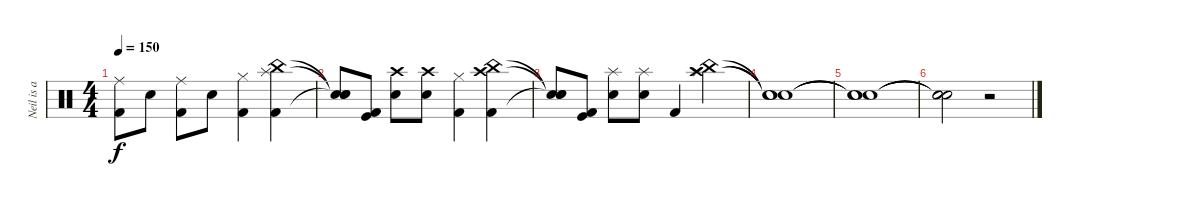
\track ("Neil is a Drum God!!!" "Neil is a ") {instrument percussion}
\staff {score}
\articulation defaults
\ts (4 4)
\tempo 150
\clef neutral
\ks c
("Ride (middle)" "Kick (hit) 2").8{dy f} "Snare (hit) 2".8 ("Ride (middle)" "Kick (hit) 2").8 "Snare (hit) 2".8 ("Hi-Hat (closed)" "Kick (hit) 2").4 ("Splash (hit)" "China (hit)" "Kick (hit) 2").4 |
("Snare (hit)"{t} "Snare (hit)"{t} "Snare (hit)"{t}).8 ("Kick (hit)" "Kick (hit) 2").8 ("Crash high (hit)" "Snare (hit) 2").8 ("Crash high (hit)" "Snare (hit) 2").8 ("Hi-Hat (closed)" "Kick (hit) 2").4 ("Crash high (hit)" "China (hit)" "Kick (hit) 2").4 |
("Snare (hit)"{t} "Snare (hit)"{t} "Snare (hit)"{t}).8 ("Kick (hit)" "Kick (hit) 2").8 ("Splash (hit)" "Snare (hit) 2").8 ("Splash (hit)" "Snare (hit) 2").8 "Kick (hit) 2".4 ("Splash (hit)" "China (hit)" "Crash high (hit)").4 |
("Snare (hit)"{t} "Snare (hit)"{t} "Snare (hit)"{t}).1 |
("Snare (hit)"{t} "Snare (hit)"{t} "Snare (hit)"{t}).1 |
("Snare (hit)"{t} "Snare (hit)"{t} "Snare (hit)"{t}).2 r.2
